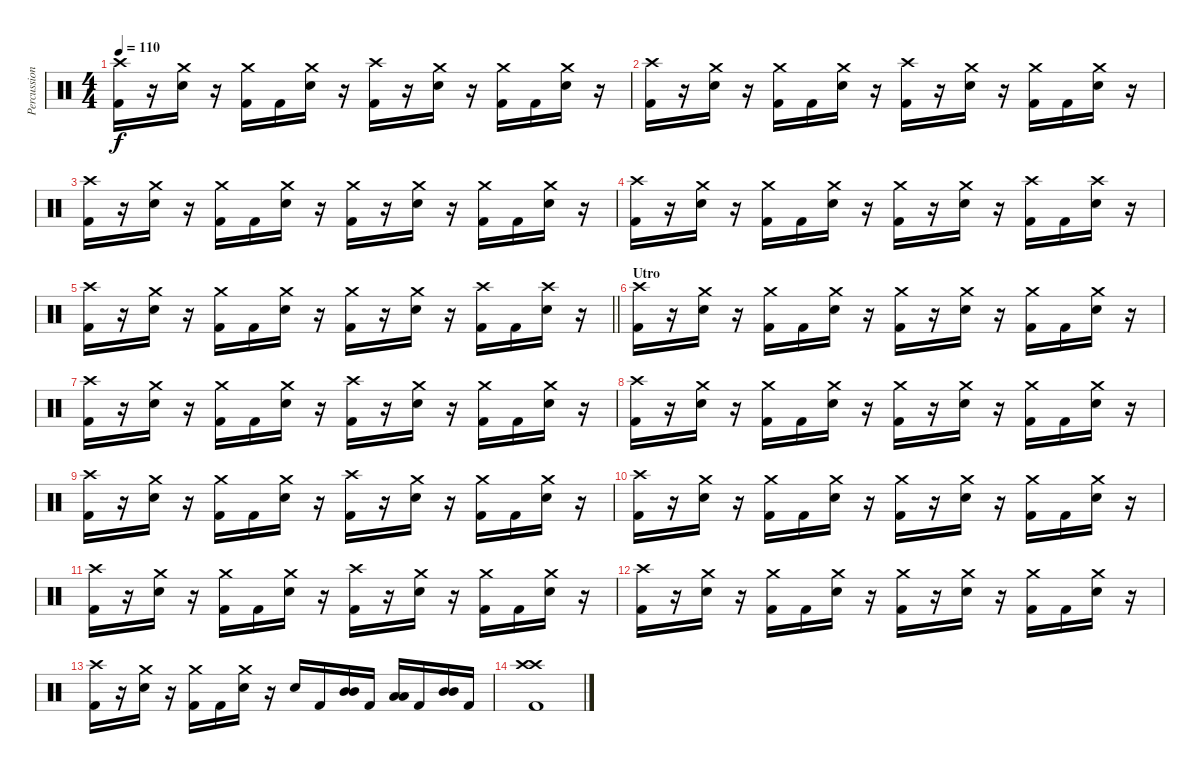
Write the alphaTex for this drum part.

\track ("Percussion" "Percussion") {instrument percussion}
\staff {score}
\articulation defaults
\ts (4 4)
\tempo 110
\clef neutral
\ks c
("Crash high (hit)" "Kick (hit) 2").16{dy f} r.16 ("Crash medium (hit)" "Snare (hit) 2").16 r.16 ("Crash medium (hit)" "Kick (hit) 2").16 "Kick (hit) 2".16 ("Crash medium (hit)" "Snare (hit) 2").16 r.16 ("Crash high (hit)" "Kick (hit) 2").16 r.16 ("Crash medium (hit)" "Snare (hit) 2").16 r.16 ("Crash medium (hit)" "Kick (hit) 2").16 "Kick (hit) 2".16 ("Crash medium (hit)" "Snare (hit) 2").16 r.16 |
("Crash high (hit)" "Kick (hit) 2").16 r.16 ("Crash medium (hit)" "Snare (hit) 2").16 r.16 ("Crash medium (hit)" "Kick (hit) 2").16 "Kick (hit) 2".16 ("Crash medium (hit)" "Snare (hit) 2").16 r.16 ("Crash high (hit)" "Kick (hit) 2").16 r.16 ("Crash medium (hit)" "Snare (hit) 2").16 r.16 ("Crash medium (hit)" "Kick (hit) 2").16 "Kick (hit) 2".16 ("Crash medium (hit)" "Snare (hit) 2").16 r.16 |
("Crash high (hit)" "Kick (hit) 2").16 r.16 ("Crash medium (hit)" "Snare (hit) 2").16 r.16 ("Crash medium (hit)" "Kick (hit) 2").16 "Kick (hit) 2".16 ("Crash medium (hit)" "Snare (hit) 2").16 r.16 ("Crash medium (hit)" "Kick (hit) 2").16 r.16 ("Crash medium (hit)" "Snare (hit) 2").16 r.16 ("Crash medium (hit)" "Kick (hit) 2").16 "Kick (hit) 2".16 ("Crash medium (hit)" "Snare (hit) 2").16 r.16 |
("Crash high (hit)" "Kick (hit) 2").16 r.16 ("Crash medium (hit)" "Snare (hit) 2").16 r.16 ("Crash medium (hit)" "Kick (hit) 2").16 "Kick (hit) 2".16 ("Crash medium (hit)" "Snare (hit) 2").16 r.16 ("Crash medium (hit)" "Kick (hit) 2").16 r.16 ("Crash medium (hit)" "Snare (hit) 2").16 r.16 ("Crash high (hit)" "Kick (hit) 2").16 "Kick (hit) 2".16 ("Crash high (hit)" "Snare (hit) 2").16 r.16 |
\barLineRight lightlight
("Crash high (hit)" "Kick (hit) 2").16 r.16 ("Crash medium (hit)" "Snare (hit) 2").16 r.16 ("Crash medium (hit)" "Kick (hit) 2").16 "Kick (hit) 2".16 ("Crash medium (hit)" "Snare (hit) 2").16 r.16 ("Crash medium (hit)" "Kick (hit) 2").16 r.16 ("Crash medium (hit)" "Snare (hit) 2").16 r.16 ("Crash high (hit)" "Kick (hit) 2").16 "Kick (hit) 2".16 ("Crash high (hit)" "Snare (hit) 2").16 r.16 |
\section ("" "Utro")
("Crash high (hit)" "Kick (hit) 2").16 r.16 ("Crash medium (hit)" "Snare (hit) 2").16 r.16 ("Crash medium (hit)" "Kick (hit) 2").16 "Kick (hit) 2".16 ("Crash medium (hit)" "Snare (hit) 2").16 r.16 ("Crash medium (hit)" "Kick (hit) 2").16 r.16 ("Crash medium (hit)" "Snare (hit) 2").16 r.16 ("Crash medium (hit)" "Kick (hit) 2").16 "Kick (hit) 2".16 ("Crash medium (hit)" "Snare (hit) 2").16 r.16 |
("Crash high (hit)" "Kick (hit) 2").16 r.16 ("Crash medium (hit)" "Snare (hit) 2").16 r.16 ("Crash medium (hit)" "Kick (hit) 2").16 "Kick (hit) 2".16 ("Crash medium (hit)" "Snare (hit) 2").16 r.16 ("Crash high (hit)" "Kick (hit) 2").16 r.16 ("Crash medium (hit)" "Snare (hit) 2").16 r.16 ("Crash medium (hit)" "Kick (hit) 2").16 "Kick (hit) 2".16 ("Crash medium (hit)" "Snare (hit) 2").16 r.16 |
("Crash high (hit)" "Kick (hit) 2").16 r.16 ("Crash medium (hit)" "Snare (hit) 2").16 r.16 ("Crash medium (hit)" "Kick (hit) 2").16 "Kick (hit) 2".16 ("Crash medium (hit)" "Snare (hit) 2").16 r.16 ("Crash medium (hit)" "Kick (hit) 2").16 r.16 ("Crash medium (hit)" "Snare (hit) 2").16 r.16 ("Crash medium (hit)" "Kick (hit) 2").16 "Kick (hit) 2".16 ("Crash medium (hit)" "Snare (hit) 2").16 r.16 |
("Crash high (hit)" "Kick (hit) 2").16 r.16 ("Crash medium (hit)" "Snare (hit) 2").16 r.16 ("Crash medium (hit)" "Kick (hit) 2").16 "Kick (hit) 2".16 ("Crash medium (hit)" "Snare (hit) 2").16 r.16 ("Crash high (hit)" "Kick (hit) 2").16 r.16 ("Crash medium (hit)" "Snare (hit) 2").16 r.16 ("Crash medium (hit)" "Kick (hit) 2").16 "Kick (hit) 2".16 ("Crash medium (hit)" "Snare (hit) 2").16 r.16 |
("Crash high (hit)" "Kick (hit) 2").16 r.16 ("Crash medium (hit)" "Snare (hit) 2").16 r.16 ("Crash medium (hit)" "Kick (hit) 2").16 "Kick (hit) 2".16 ("Crash medium (hit)" "Snare (hit) 2").16 r.16 ("Crash medium (hit)" "Kick (hit) 2").16 r.16 ("Crash medium (hit)" "Snare (hit) 2").16 r.16 ("Crash medium (hit)" "Kick (hit) 2").16 "Kick (hit) 2".16 ("Crash medium (hit)" "Snare (hit) 2").16 r.16 |
("Crash high (hit)" "Kick (hit) 2").16 r.16 ("Crash medium (hit)" "Snare (hit) 2").16 r.16 ("Crash medium (hit)" "Kick (hit) 2").16 "Kick (hit) 2".16 ("Crash medium (hit)" "Snare (hit) 2").16 r.16 ("Crash high (hit)" "Kick (hit) 2").16 r.16 ("Crash medium (hit)" "Snare (hit) 2").16 r.16 ("Crash medium (hit)" "Kick (hit) 2").16 "Kick (hit) 2".16 ("Crash medium (hit)" "Snare (hit) 2").16 r.16 |
("Crash high (hit)" "Kick (hit) 2").16 r.16 ("Crash medium (hit)" "Snare (hit) 2").16 r.16 ("Crash medium (hit)" "Kick (hit) 2").16 "Kick (hit) 2".16 ("Crash medium (hit)" "Snare (hit) 2").16 r.16 ("Crash medium (hit)" "Kick (hit) 2").16 r.16 ("Crash medium (hit)" "Snare (hit) 2").16 r.16 ("Crash medium (hit)" "Kick (hit) 2").16 "Kick (hit) 2".16 ("Crash medium (hit)" "Snare (hit) 2").16 r.16 |
("Crash high (hit)" "Kick (hit) 2").16 r.16 ("Crash medium (hit)" "Snare (hit) 2").16 r.16 ("Crash medium (hit)" "Kick (hit) 2").16 "Kick (hit) 2".16 ("Crash medium (hit)" "Snare (hit) 2").16 r.16 "Snare (hit) 2".16 "Kick (hit) 2".16 ("Mid Tom (hit)" "Mid Tom (hit)").16 "Kick (hit) 2".16 ("Low Tom (hit)" "Low Tom (hit)").16 "Kick (hit) 2".16 ("Mid Tom (hit)" "Mid Tom (hit)").16 "Kick (hit) 2".16 |
("Crash high (hit)" "Crash high (hit)" "Kick (hit) 2").1
